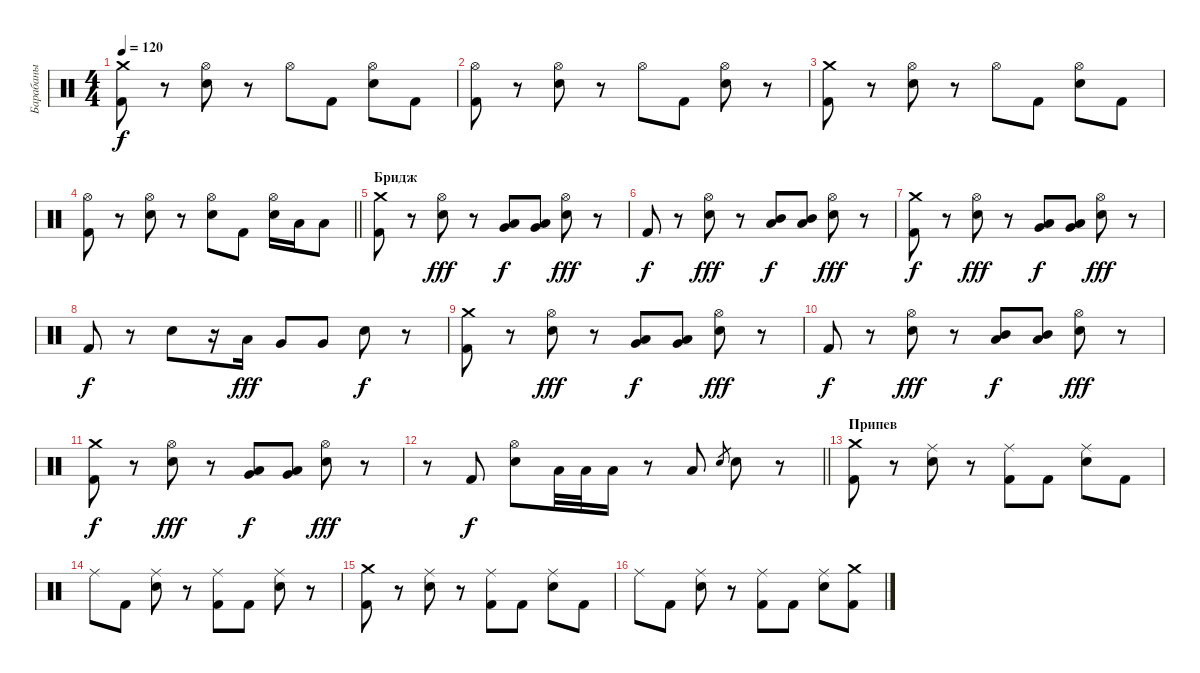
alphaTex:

\track ("Барабаны" "Барабаны") {instrument percussion}
\staff {score}
\articulation defaults
\ts (4 4)
\tempo 120
\clef neutral
\ks c
("Kick (hit) 2" "Crash medium (hit)").8{dy f} r.8 ("Hi-Hat (open)" "Snare (hit) 2").8 r.8 "Hi-Hat (open)".8 "Kick (hit) 2".8 ("Hi-Hat (open)" "Snare (hit) 2").8 "Kick (hit) 2".8 |
("Hi-Hat (open)" "Kick (hit) 2").8 r.8 ("Hi-Hat (open)" "Snare (hit) 2").8 r.8 "Hi-Hat (open)".8 "Kick (hit) 2".8 ("Hi-Hat (open)" "Snare (hit) 2").8 r.8 |
("Kick (hit) 2" "Crash medium (hit)").8 r.8 ("Hi-Hat (open)" "Snare (hit) 2").8 r.8 "Hi-Hat (open)".8 "Kick (hit) 2".8 ("Hi-Hat (open)" "Snare (hit) 2").8 "Kick (hit) 2".8 |
\barLineRight lightlight
("Hi-Hat (open)" "Kick (hit) 2").8 r.8 ("Hi-Hat (open)" "Snare (hit) 2").8 r.8 ("Hi-Hat (open)" "Snare (hit) 2").8 "Kick (hit) 2".8 ("Hi-Hat (open)" "Snare (hit) 2").16 "Low Tom (hit)".16 "Low Tom (hit)".8 |
\section ("" "Бридж")
("Kick (hit) 2" "Crash medium (hit)").8 r.8 ("Hi-Hat (open)" "Snare (hit) 2").8{dy fff} r.8 ("Low Tom (hit)" "Very Low Tom (hit)").8{dy f} ("Low Tom (hit)" "Very Low Tom (hit)").8 ("Hi-Hat (open)" "Snare (hit) 2").8{dy fff} r.8 |
"Kick (hit) 2".8{dy f} r.8 ("Hi-Hat (open)" "Snare (hit) 2").8{dy fff} r.8 ("Low Tom (hit)" "Mid Tom (hit)").8{dy f} ("Low Tom (hit)" "Mid Tom (hit)").8 ("Hi-Hat (open)" "Snare (hit) 2").8{dy fff} r.8 |
("Kick (hit) 2" "Crash medium (hit)").8{dy f} r.8 ("Hi-Hat (open)" "Snare (hit) 2").8{dy fff} r.8 ("Low Tom (hit)" "Very Low Tom (hit)").8{dy f} ("Low Tom (hit)" "Very Low Tom (hit)").8 ("Hi-Hat (open)" "Snare (hit) 2").8{dy fff} r.8 |
"Kick (hit) 2".8{dy f} r.8 "Snare (hit) 2".8 r.16 "Low Tom (hit)".16{dy fff} "Very Low Tom (hit)".8 "Very Low Tom (hit)".8 "Snare (hit) 2".8{dy f} r.8 |
("Kick (hit) 2" "Crash medium (hit)").8 r.8 ("Hi-Hat (open)" "Snare (hit) 2").8{dy fff} r.8 ("Low Tom (hit)" "Very Low Tom (hit)").8{dy f} ("Low Tom (hit)" "Very Low Tom (hit)").8 ("Hi-Hat (open)" "Snare (hit) 2").8{dy fff} r.8 |
"Kick (hit) 2".8{dy f} r.8 ("Hi-Hat (open)" "Snare (hit) 2").8{dy fff} r.8 ("Low Tom (hit)" "Mid Tom (hit)").8{dy f} ("Low Tom (hit)" "Mid Tom (hit)").8 ("Hi-Hat (open)" "Snare (hit) 2").8{dy fff} r.8 |
("Kick (hit) 2" "Crash medium (hit)").8{dy f} r.8 ("Hi-Hat (open)" "Snare (hit) 2").8{dy fff} r.8 ("Low Tom (hit)" "Very Low Tom (hit)").8{dy f} ("Low Tom (hit)" "Very Low Tom (hit)").8 ("Hi-Hat (open)" "Snare (hit) 2").8{dy fff} r.8 |
\barLineRight lightlight
r.8 "Kick (hit) 2".8{dy f} ("Hi-Hat (open)" "Snare (hit) 2").8 "Low Tom (hit)".32 "Low Tom (hit)".32 "Low Tom (hit)".16 r.8 "Low Tom (hit)".8 "Snare (hit) 2".8{gr} "Snare (hit) 2".8 r.8 |
\section ("" "Припев")
("Kick (hit) 2" "Crash medium (hit)").8 r.8 ("Ride (middle)" "Snare (hit) 2").8 r.8 ("Ride (middle)" "Kick (hit) 2").8 "Kick (hit) 2".8 ("Ride (middle)" "Snare (hit) 2").8 "Kick (hit) 2".8 |
"Ride (middle)".8 "Kick (hit) 2".8 ("Ride (middle)" "Snare (hit) 2").8 r.8 ("Ride (middle)" "Kick (hit) 2").8 "Kick (hit) 2".8 ("Ride (middle)" "Snare (hit) 2").8 r.8 |
("Kick (hit) 2" "Crash medium (hit)").8 r.8 ("Ride (middle)" "Snare (hit) 2").8 r.8 ("Ride (middle)" "Kick (hit) 2").8 "Kick (hit) 2".8 ("Ride (middle)" "Snare (hit) 2").8 "Kick (hit) 2".8 |
"Ride (middle)".8 "Kick (hit) 2".8 ("Ride (middle)" "Snare (hit) 2").8 r.8 ("Ride (middle)" "Kick (hit) 2").8 "Kick (hit) 2".8 ("Ride (middle)" "Snare (hit) 2").8 ("Kick (hit) 2" "Crash medium (hit)").8
